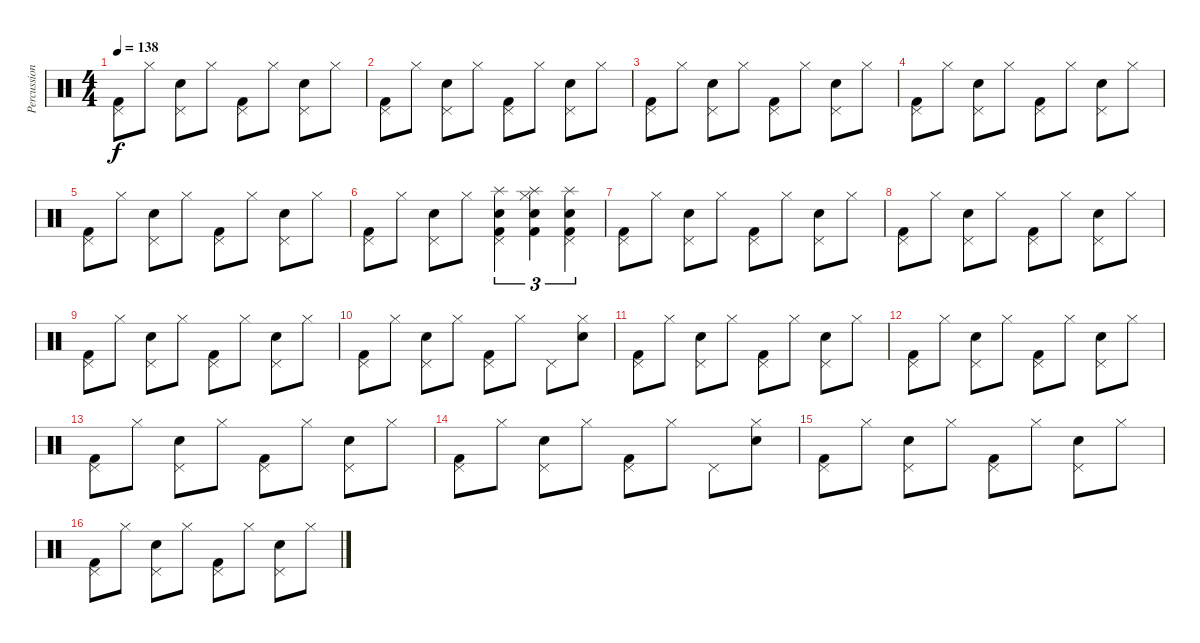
\track ("Percussions" "Percussion") {instrument percussion}
\staff {score}
\articulation defaults
\ts (4 4)
\tempo 138
\clef neutral
\ks c
("Pedal Hi-Hat (hit)" "Kick (hit) 2").8{dy f} "Hi-Hat (closed)".8 ("Pedal Hi-Hat (hit)" "Snare (hit) 2").8 "Hi-Hat (closed)".8 ("Pedal Hi-Hat (hit)" "Kick (hit) 2").8 "Hi-Hat (closed)".8 ("Pedal Hi-Hat (hit)" "Snare (hit) 2").8 "Hi-Hat (closed)".8 |
("Pedal Hi-Hat (hit)" "Kick (hit) 2").8 "Hi-Hat (closed)".8 ("Pedal Hi-Hat (hit)" "Snare (hit) 2").8 "Hi-Hat (closed)".8 ("Pedal Hi-Hat (hit)" "Kick (hit) 2").8 "Hi-Hat (closed)".8 ("Pedal Hi-Hat (hit)" "Snare (hit) 2").8 "Hi-Hat (closed)".8 |
("Pedal Hi-Hat (hit)" "Kick (hit) 2").8 "Hi-Hat (closed)".8 ("Pedal Hi-Hat (hit)" "Snare (hit) 2").8 "Hi-Hat (closed)".8 ("Pedal Hi-Hat (hit)" "Kick (hit) 2").8 "Hi-Hat (closed)".8 ("Pedal Hi-Hat (hit)" "Snare (hit) 2").8 "Hi-Hat (closed)".8 |
("Pedal Hi-Hat (hit)" "Kick (hit) 2").8 "Hi-Hat (closed)".8 ("Pedal Hi-Hat (hit)" "Snare (hit) 2").8 "Hi-Hat (closed)".8 ("Pedal Hi-Hat (hit)" "Kick (hit) 2").8 "Hi-Hat (closed)".8 ("Pedal Hi-Hat (hit)" "Snare (hit) 2").8 "Hi-Hat (closed)".8 |
("Pedal Hi-Hat (hit)" "Kick (hit) 2").8 "Hi-Hat (closed)".8 ("Pedal Hi-Hat (hit)" "Snare (hit) 2").8 "Hi-Hat (closed)".8 ("Pedal Hi-Hat (hit)" "Kick (hit) 2").8 "Hi-Hat (closed)".8 ("Pedal Hi-Hat (hit)" "Snare (hit) 2").8 "Hi-Hat (closed)".8 |
("Pedal Hi-Hat (hit)" "Kick (hit) 2").8 "Hi-Hat (closed)".8 ("Pedal Hi-Hat (hit)" "Snare (hit) 2").8 "Hi-Hat (closed)".8 ("Pedal Hi-Hat (hit)" "Splash (hit)" "Snare (hit) 2" "Kick (hit) 2").4{tu (3 2)} ("Hi-Hat (closed)" "Splash (hit)" "Snare (hit) 2" "Kick (hit) 2").4{tu (3 2)} ("Pedal Hi-Hat (hit)" "Splash (hit)" "Snare (hit) 2" "Kick (hit) 2").4{tu (3 2)} |
("Pedal Hi-Hat (hit)" "Kick (hit) 2").8 "Hi-Hat (closed)".8 ("Pedal Hi-Hat (hit)" "Snare (hit) 2").8 "Hi-Hat (closed)".8 ("Pedal Hi-Hat (hit)" "Kick (hit) 2").8 "Hi-Hat (closed)".8 ("Pedal Hi-Hat (hit)" "Snare (hit) 2").8 "Hi-Hat (closed)".8 |
("Pedal Hi-Hat (hit)" "Kick (hit) 2").8 "Hi-Hat (closed)".8 ("Pedal Hi-Hat (hit)" "Snare (hit) 2").8 "Hi-Hat (closed)".8 ("Pedal Hi-Hat (hit)" "Kick (hit) 2").8 "Hi-Hat (closed)".8 ("Pedal Hi-Hat (hit)" "Snare (hit) 2").8 "Hi-Hat (closed)".8 |
("Pedal Hi-Hat (hit)" "Kick (hit) 2").8 "Hi-Hat (closed)".8 ("Pedal Hi-Hat (hit)" "Snare (hit) 2").8 "Hi-Hat (closed)".8 ("Pedal Hi-Hat (hit)" "Kick (hit) 2").8 "Hi-Hat (closed)".8 ("Pedal Hi-Hat (hit)" "Snare (hit) 2").8 "Hi-Hat (closed)".8 |
("Pedal Hi-Hat (hit)" "Kick (hit) 2").8 "Hi-Hat (closed)".8 ("Pedal Hi-Hat (hit)" "Snare (hit) 2").8 "Hi-Hat (closed)".8 ("Pedal Hi-Hat (hit)" "Kick (hit) 2").8 "Hi-Hat (closed)".8 "Pedal Hi-Hat (hit)".8 ("Hi-Hat (closed)" "Snare (hit) 2").8 |
("Pedal Hi-Hat (hit)" "Kick (hit) 2").8 "Hi-Hat (closed)".8 ("Pedal Hi-Hat (hit)" "Snare (hit) 2").8 "Hi-Hat (closed)".8 ("Pedal Hi-Hat (hit)" "Kick (hit) 2").8 "Hi-Hat (closed)".8 ("Pedal Hi-Hat (hit)" "Snare (hit) 2").8 "Hi-Hat (closed)".8 |
("Pedal Hi-Hat (hit)" "Kick (hit) 2").8 "Hi-Hat (closed)".8 ("Pedal Hi-Hat (hit)" "Snare (hit) 2").8 "Hi-Hat (closed)".8 ("Pedal Hi-Hat (hit)" "Kick (hit) 2").8 "Hi-Hat (closed)".8 ("Pedal Hi-Hat (hit)" "Snare (hit) 2").8 "Hi-Hat (closed)".8 |
("Pedal Hi-Hat (hit)" "Kick (hit) 2").8 "Hi-Hat (closed)".8 ("Pedal Hi-Hat (hit)" "Snare (hit) 2").8 "Hi-Hat (closed)".8 ("Pedal Hi-Hat (hit)" "Kick (hit) 2").8 "Hi-Hat (closed)".8 ("Pedal Hi-Hat (hit)" "Snare (hit) 2").8 "Hi-Hat (closed)".8 |
("Pedal Hi-Hat (hit)" "Kick (hit) 2").8 "Hi-Hat (closed)".8 ("Pedal Hi-Hat (hit)" "Snare (hit) 2").8 "Hi-Hat (closed)".8 ("Pedal Hi-Hat (hit)" "Kick (hit) 2").8 "Hi-Hat (closed)".8 "Pedal Hi-Hat (hit)".8 ("Hi-Hat (closed)" "Snare (hit) 2").8 |
("Pedal Hi-Hat (hit)" "Kick (hit) 2").8 "Hi-Hat (closed)".8 ("Pedal Hi-Hat (hit)" "Snare (hit) 2").8 "Hi-Hat (closed)".8 ("Pedal Hi-Hat (hit)" "Kick (hit) 2").8 "Hi-Hat (closed)".8 ("Pedal Hi-Hat (hit)" "Snare (hit) 2").8 "Hi-Hat (closed)".8 |
("Pedal Hi-Hat (hit)" "Kick (hit) 2").8 "Hi-Hat (closed)".8 ("Pedal Hi-Hat (hit)" "Snare (hit) 2").8 "Hi-Hat (closed)".8 ("Pedal Hi-Hat (hit)" "Kick (hit) 2").8 "Hi-Hat (closed)".8 ("Pedal Hi-Hat (hit)" "Snare (hit) 2").8 "Hi-Hat (closed)".8
